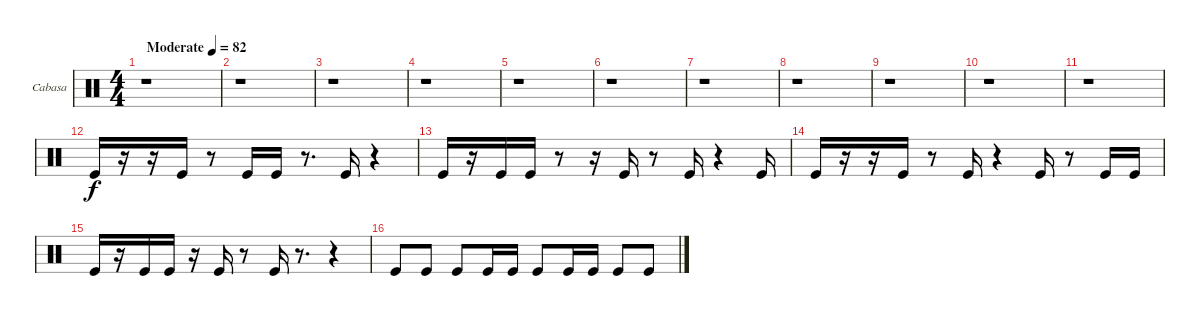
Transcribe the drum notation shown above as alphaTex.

\bracketExtendMode groupsimilarinstruments
\firstSystemTrackNameOrientation horizontal
\otherSystemsTrackNameOrientation horizontal
\track ("Cabasa" "Cabasa") {instrument percussion}
\staff {score}
\articulation defaults
\ts (4 4)
\beaming (8 2 2 2 2)
\tempo (82 "Moderate")
\clef neutral
\ks c
r.1{dy f} |
r.1 |
r.1 |
r.1 |
r.1 |
r.1 |
r.1 |
r.1 |
r.1 |
r.1 |
r.1 |
"Kick (hit)".16 r.16 r.16 "Kick (hit)".16 r.8 "Kick (hit)".16 "Kick (hit)".16 r.8{d} "Kick (hit)".16 r.4 |
"Kick (hit)".16 r.16 "Kick (hit)".16 "Kick (hit)".16 r.8 r.16 "Kick (hit)".16 r.8 "Kick (hit)".16 r.4 "Kick (hit)".16 |
"Kick (hit)".16 r.16 r.16 "Kick (hit)".16 r.8 "Kick (hit)".16 r.4 "Kick (hit)".16 r.8 "Kick (hit)".16 "Kick (hit)".16 |
"Kick (hit)".16 r.16 "Kick (hit)".16 "Kick (hit)".16 r.16 "Kick (hit)".16 r.8 "Kick (hit)".16 r.8{d} r.4 |
"Kick (hit)".8 "Kick (hit)".8 "Kick (hit)".8 "Kick (hit)".16 "Kick (hit)".16 "Kick (hit)".8 "Kick (hit)".16 "Kick (hit)".16 "Kick (hit)".8 "Kick (hit)".8
